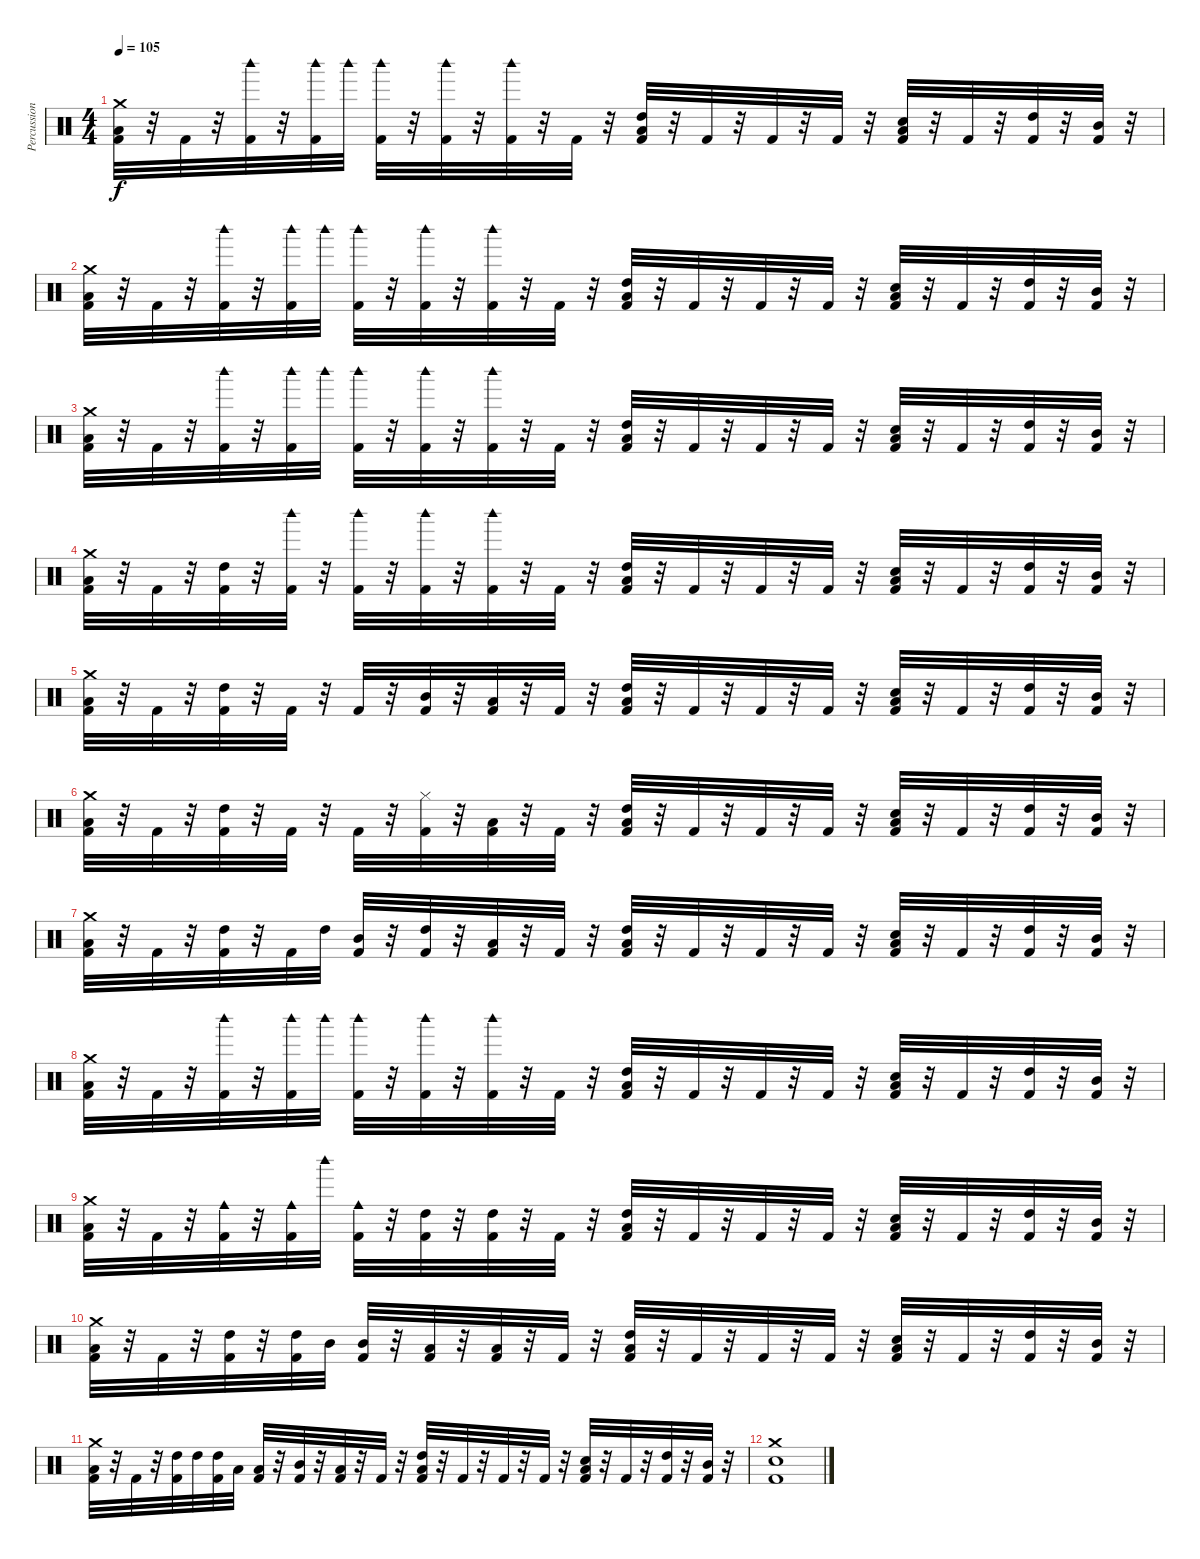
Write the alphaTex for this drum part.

\track ("Percussion" "Percussion") {instrument percussion}
\staff {score}
\articulation defaults
\ts (4 4)
\tempo 105
\clef neutral
\ks c
("Crash medium (hit)" "Low Tom (hit)" "Kick (hit) 2").32{dy f} r.32 "Kick (hit) 2".32 r.32 ("Woodblock high (hit)" "Kick (hit) 2").32 r.32 ("Woodblock high (hit)" "Kick (hit) 2").32 "Woodblock high (hit)".32 ("Woodblock high (hit)" "Kick (hit) 2").32 r.32 ("Woodblock high (hit)" "Kick (hit) 2").32 r.32 ("Woodblock high (hit)" "Kick (hit) 2").32 r.32 "Kick (hit) 2".32 r.32 ("High Tom (hit)" "Low Tom (hit)" "Kick (hit) 2").32 r.32 "Kick (hit) 2".32 r.32 "Kick (hit) 2".32 r.32 "Kick (hit) 2".32 r.32 ("Snare (hit) 2" "Low Tom (hit)" "Kick (hit) 2").32 r.32 "Kick (hit) 2".32 r.32 ("High Tom (hit)" "Kick (hit) 2").32 r.32 ("Mid Tom (hit)" "Kick (hit) 2").32 r.32 |
("Crash medium (hit)" "Low Tom (hit)" "Kick (hit) 2").32 r.32 "Kick (hit) 2".32 r.32 ("Woodblock high (hit)" "Kick (hit) 2").32 r.32 ("Woodblock high (hit)" "Kick (hit) 2").32 "Woodblock high (hit)".32 ("Woodblock high (hit)" "Kick (hit) 2").32 r.32 ("Woodblock high (hit)" "Kick (hit) 2").32 r.32 ("Woodblock high (hit)" "Kick (hit) 2").32 r.32 "Kick (hit) 2".32 r.32 ("High Tom (hit)" "Low Tom (hit)" "Kick (hit) 2").32 r.32 "Kick (hit) 2".32 r.32 "Kick (hit) 2".32 r.32 "Kick (hit) 2".32 r.32 ("Snare (hit) 2" "Low Tom (hit)" "Kick (hit) 2").32 r.32 "Kick (hit) 2".32 r.32 ("High Tom (hit)" "Kick (hit) 2").32 r.32 ("Mid Tom (hit)" "Kick (hit) 2").32 r.32 |
("Crash medium (hit)" "Low Tom (hit)" "Kick (hit) 2").32 r.32 "Kick (hit) 2".32 r.32 ("Woodblock high (hit)" "Kick (hit) 2").32 r.32 ("Woodblock high (hit)" "Kick (hit) 2").32 "Woodblock high (hit)".32 ("Woodblock high (hit)" "Kick (hit) 2").32 r.32 ("Woodblock high (hit)" "Kick (hit) 2").32 r.32 ("Woodblock high (hit)" "Kick (hit) 2").32 r.32 "Kick (hit) 2".32 r.32 ("High Tom (hit)" "Low Tom (hit)" "Kick (hit) 2").32 r.32 "Kick (hit) 2".32 r.32 "Kick (hit) 2".32 r.32 "Kick (hit) 2".32 r.32 ("Snare (hit) 2" "Low Tom (hit)" "Kick (hit) 2").32 r.32 "Kick (hit) 2".32 r.32 ("High Tom (hit)" "Kick (hit) 2").32 r.32 ("Mid Tom (hit)" "Kick (hit) 2").32 r.32 |
("Crash medium (hit)" "Low Tom (hit)" "Kick (hit) 2").32 r.32 "Kick (hit) 2".32 r.32 ("High Tom (hit)" "Kick (hit) 2").32 r.32 ("Woodblock high (hit)" "Kick (hit) 2").32 r.32 ("Woodblock high (hit)" "Kick (hit) 2").32 r.32 ("Woodblock high (hit)" "Kick (hit) 2").32 r.32 ("Woodblock high (hit)" "Kick (hit) 2").32 r.32 "Kick (hit) 2".32 r.32 ("High Tom (hit)" "Low Tom (hit)" "Kick (hit) 2").32 r.32 "Kick (hit) 2".32 r.32 "Kick (hit) 2".32 r.32 "Kick (hit) 2".32 r.32 ("Snare (hit) 2" "Low Tom (hit)" "Kick (hit) 2").32 r.32 "Kick (hit) 2".32 r.32 ("High Tom (hit)" "Kick (hit) 2").32 r.32 ("Mid Tom (hit)" "Kick (hit) 2").32 r.32 |
("Crash medium (hit)" "Low Tom (hit)" "Kick (hit) 2").32 r.32 "Kick (hit) 2".32 r.32 ("High Tom (hit)" "Kick (hit) 2").32 r.32 "Kick (hit) 2".32 r.32 "Kick (hit) 2".32 r.32 ("Mid Tom (hit)" "Kick (hit) 2").32 r.32 ("Low Tom (hit)" "Kick (hit) 2").32 r.32 "Kick (hit) 2".32 r.32 ("High Tom (hit)" "Low Tom (hit)" "Kick (hit) 2").32 r.32 "Kick (hit) 2".32 r.32 "Kick (hit) 2".32 r.32 "Kick (hit) 2".32 r.32 ("Snare (hit) 2" "Low Tom (hit)" "Kick (hit) 2").32 r.32 "Kick (hit) 2".32 r.32 ("High Tom (hit)" "Kick (hit) 2").32 r.32 ("Mid Tom (hit)" "Kick (hit) 2").32 r.32 |
("Crash medium (hit)" "Low Tom (hit)" "Kick (hit) 2").32 r.32 "Kick (hit) 2".32 r.32 ("High Tom (hit)" "Kick (hit) 2").32 r.32 "Kick (hit) 2".32 r.32 "Kick (hit) 2".32 r.32 ("Hi-Hat (closed)" "Kick (hit) 2").32 r.32 ("Low Tom (hit)" "Kick (hit) 2").32 r.32 "Kick (hit) 2".32 r.32 ("High Tom (hit)" "Low Tom (hit)" "Kick (hit) 2").32 r.32 "Kick (hit) 2".32 r.32 "Kick (hit) 2".32 r.32 "Kick (hit) 2".32 r.32 ("Snare (hit) 2" "Low Tom (hit)" "Kick (hit) 2").32 r.32 "Kick (hit) 2".32 r.32 ("High Tom (hit)" "Kick (hit) 2").32 r.32 ("Mid Tom (hit)" "Kick (hit) 2").32 r.32 |
("Crash medium (hit)" "Low Tom (hit)" "Kick (hit) 2").32 r.32 "Kick (hit) 2".32 r.32 ("High Tom (hit)" "Kick (hit) 2").32 r.32 "Kick (hit) 2".32 "High Tom (hit)".32 ("Mid Tom (hit)" "Kick (hit) 2").32 r.32 ("High Tom (hit)" "Kick (hit) 2").32 r.32 ("Low Tom (hit)" "Kick (hit) 2").32 r.32 "Kick (hit) 2".32 r.32 ("High Tom (hit)" "Low Tom (hit)" "Kick (hit) 2").32 r.32 "Kick (hit) 2".32 r.32 "Kick (hit) 2".32 r.32 "Kick (hit) 2".32 r.32 ("Snare (hit) 2" "Low Tom (hit)" "Kick (hit) 2").32 r.32 "Kick (hit) 2".32 r.32 ("High Tom (hit)" "Kick (hit) 2").32 r.32 ("Mid Tom (hit)" "Kick (hit) 2").32 r.32 |
("Crash medium (hit)" "Low Tom (hit)" "Kick (hit) 2").32 r.32 "Kick (hit) 2".32 r.32 ("Woodblock high (hit)" "Kick (hit) 2").32 r.32 ("Woodblock high (hit)" "Kick (hit) 2").32 "Woodblock high (hit)".32 ("Woodblock high (hit)" "Kick (hit) 2").32 r.32 ("Woodblock high (hit)" "Kick (hit) 2").32 r.32 ("Woodblock high (hit)" "Kick (hit) 2").32 r.32 "Kick (hit) 2".32 r.32 ("High Tom (hit)" "Low Tom (hit)" "Kick (hit) 2").32 r.32 "Kick (hit) 2".32 r.32 "Kick (hit) 2".32 r.32 "Kick (hit) 2".32 r.32 ("Snare (hit) 2" "Low Tom (hit)" "Kick (hit) 2").32 r.32 "Kick (hit) 2".32 r.32 ("High Tom (hit)" "Kick (hit) 2").32 r.32 ("Mid Tom (hit)" "Kick (hit) 2").32 r.32 |
("Crash medium (hit)" "Low Tom (hit)" "Kick (hit) 2").32 r.32 "Kick (hit) 2".32 r.32 ("Cowbell medium (hit)" "Kick (hit) 2").32 r.32 ("Cowbell medium (hit)" "Kick (hit) 2").32 "Woodblock high (hit)".32 ("Cowbell medium (hit)" "Kick (hit) 2").32 r.32 ("High Tom (hit)" "Kick (hit) 2").32 r.32 ("High Tom (hit)" "Kick (hit) 2").32 r.32 "Kick (hit) 2".32 r.32 ("High Tom (hit)" "Low Tom (hit)" "Kick (hit) 2").32 r.32 "Kick (hit) 2".32 r.32 "Kick (hit) 2".32 r.32 "Kick (hit) 2".32 r.32 ("Snare (hit) 2" "Low Tom (hit)" "Kick (hit) 2").32 r.32 "Kick (hit) 2".32 r.32 ("High Tom (hit)" "Kick (hit) 2").32 r.32 ("Mid Tom (hit)" "Kick (hit) 2").32 r.32 |
("Crash medium (hit)" "Low Tom (hit)" "Kick (hit) 2").32 r.32 "Kick (hit) 2".32 r.32 ("High Tom (hit)" "Kick (hit) 2").32 r.32 ("High Tom (hit)" "Kick (hit) 2").32 "Mid Tom (hit)".32 ("Mid Tom (hit)" "Kick (hit) 2").32 r.32 ("Low Tom (hit)" "Kick (hit) 2").32 r.32 ("Low Tom (hit)" "Kick (hit) 2").32 r.32 "Kick (hit) 2".32 r.32 ("High Tom (hit)" "Low Tom (hit)" "Kick (hit) 2").32 r.32 "Kick (hit) 2".32 r.32 "Kick (hit) 2".32 r.32 "Kick (hit) 2".32 r.32 ("Snare (hit) 2" "Low Tom (hit)" "Kick (hit) 2").32 r.32 "Kick (hit) 2".32 r.32 ("High Tom (hit)" "Kick (hit) 2").32 r.32 ("Mid Tom (hit)" "Kick (hit) 2").32 r.32 |
("Crash medium (hit)" "Low Tom (hit)" "Kick (hit) 2").32 r.32 "Kick (hit) 2".32 r.32 ("High Tom (hit)" "Kick (hit) 2").32 "High Tom (hit)".32 ("High Tom (hit)" "Kick (hit) 2").32 "Low Tom (hit)".32 ("Low Tom (hit)" "Kick (hit) 2").32 r.32 ("Mid Tom (hit)" "Kick (hit) 2").32 r.32 ("Low Tom (hit)" "Kick (hit) 2").32 r.32 "Kick (hit) 2".32 r.32 ("High Tom (hit)" "Low Tom (hit)" "Kick (hit) 2").32 r.32 "Kick (hit) 2".32 r.32 "Kick (hit) 2".32 r.32 "Kick (hit) 2".32 r.32 ("Snare (hit) 2" "Low Tom (hit)" "Kick (hit) 2").32 r.32 "Kick (hit) 2".32 r.32 ("High Tom (hit)" "Kick (hit) 2").32 r.32 ("Mid Tom (hit)" "Kick (hit) 2").32 r.32 |
("Crash medium (hit)" "Snare (hit) 2" "Kick (hit) 2").1
